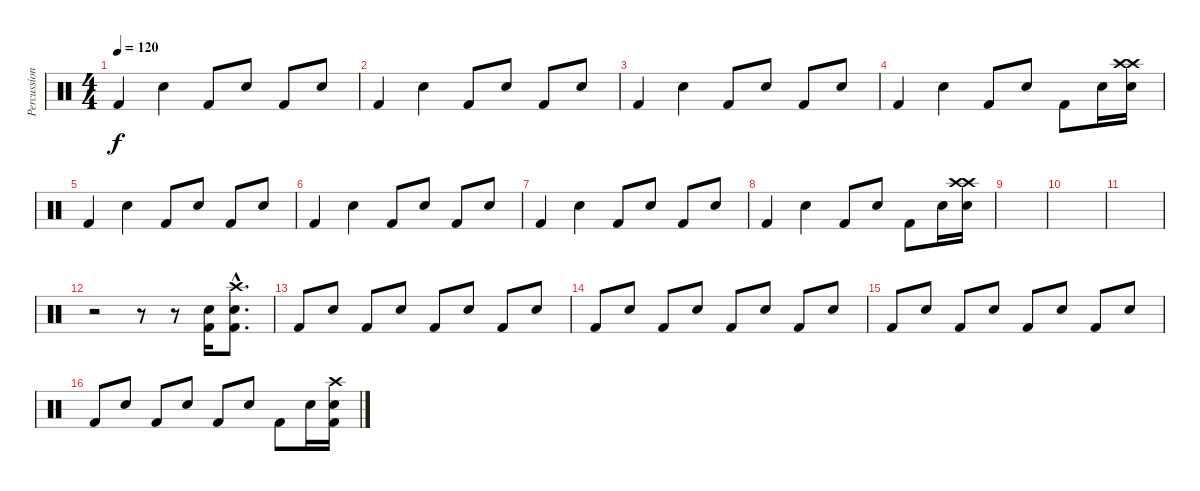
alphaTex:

\track ("Percussion" "Percussion") {instrument percussion}
\staff {score}
\articulation defaults
\ts (4 4)
\tempo 120
\clef neutral
\ks c "Kick (hit) 2".4{dy f} "Snare (hit) 2".4 "Kick (hit) 2".8 "Snare (hit) 2".8 "Kick (hit) 2".8 "Snare (hit) 2".8
|
"Kick (hit) 2".4 "Snare (hit) 2".4 "Kick (hit) 2".8 "Snare (hit) 2".8 "Kick (hit) 2".8 "Snare (hit) 2".8 |
"Kick (hit) 2".4 "Snare (hit) 2".4 "Kick (hit) 2".8 "Snare (hit) 2".8 "Kick (hit) 2".8 "Snare (hit) 2".8 |
"Kick (hit) 2".4 "Snare (hit) 2".4 "Kick (hit) 2".8 "Snare (hit) 2".8 "Kick (hit) 2".8 "Snare (hit) 2".16 ("Crash high (hit)" "Crash high (hit)" "Snare (hit) 2").16 |
"Kick (hit) 2".4 "Snare (hit) 2".4 "Kick (hit) 2".8 "Snare (hit) 2".8 "Kick (hit) 2".8 "Snare (hit) 2".8 |
"Kick (hit) 2".4 "Snare (hit) 2".4 "Kick (hit) 2".8 "Snare (hit) 2".8 "Kick (hit) 2".8 "Snare (hit) 2".8 |
"Kick (hit) 2".4 "Snare (hit) 2".4 "Kick (hit) 2".8 "Snare (hit) 2".8 "Kick (hit) 2".8 "Snare (hit) 2".8 |
"Kick (hit) 2".4 "Snare (hit) 2".4 "Kick (hit) 2".8 "Snare (hit) 2".8 "Kick (hit) 2".8 "Snare (hit) 2".16 ("Crash high (hit)" "Crash high (hit)" "Snare (hit) 2").16 |
|
|
|
r.2 r.8 r.8 ("Snare (hit) 2" "Kick (hit) 2").16 ("Crash high (hit)"{hac} "Snare (hit) 2"{hac} "Kick (hit) 2"{hac}).8{d} |
"Kick (hit) 2".8 "Snare (hit) 2".8 "Kick (hit) 2".8 "Snare (hit) 2".8 "Kick (hit) 2".8 "Snare (hit) 2".8 "Kick (hit) 2".8 "Snare (hit) 2".8 |
"Kick (hit) 2".8 "Snare (hit) 2".8 "Kick (hit) 2".8 "Snare (hit) 2".8 "Kick (hit) 2".8 "Snare (hit) 2".8 "Kick (hit) 2".8 "Snare (hit) 2".8 |
"Kick (hit) 2".8 "Snare (hit) 2".8 "Kick (hit) 2".8 "Snare (hit) 2".8 "Kick (hit) 2".8 "Snare (hit) 2".8 "Kick (hit) 2".8 "Snare (hit) 2".8 |
"Kick (hit) 2".8 "Snare (hit) 2".8 "Kick (hit) 2".8 "Snare (hit) 2".8 "Kick (hit) 2".8 "Snare (hit) 2".8 "Kick (hit) 2".8 "Snare (hit) 2".16 ("Crash high (hit)" "Snare (hit) 2" "Kick (hit) 2").16
